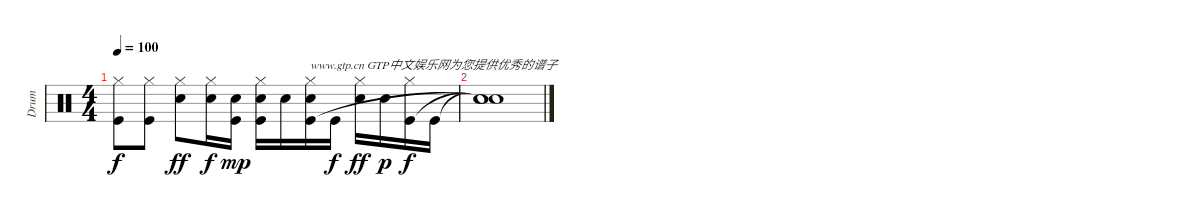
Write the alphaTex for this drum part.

\track ("Drum" "Drum") {instrument percussion}
\staff {score}
\articulation defaults
\ts (4 4)
\tempo 100
\clef neutral
\ks c
("Hi-Hat (closed)" "Kick (hit)").8{dy f} ("Hi-Hat (closed)" "Kick (hit)").8 ("Hi-Hat (closed)" "Snare (hit) 2").8{dy ff} ("Hi-Hat (closed)" "Snare (hit) 2").16{dy f} ("Snare (hit) 2" "Kick (hit)").16{dy mp} ("Hi-Hat (closed)" "Snare (hit) 2" "Kick (hit)").16 "Snare (hit) 2".16 ("Hi-Hat (closed)" "Snare (hit) 2" "Kick (hit)").16{txt "www.gtp.cn GTP中文娱乐网为您提供优秀的谱子"} "Kick (hit)".16{dy f} ("Hi-Hat (closed)" "Snare (hit) 2").16{dy ff} "Snare (hit) 2".16{dy p} ("Hi-Hat (closed)" "Kick (hit)").16{dy f} "Kick (hit)".16 |
("Snare (hit)"{t} "Snare (hit)"{t} "Snare (hit)"{t}).1
